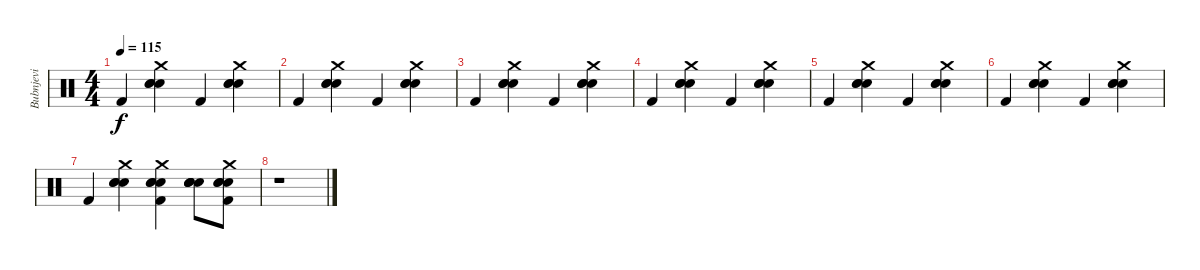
\track ("Bubnjevi" "Bubnjevi") {instrument percussion}
\staff {score}
\articulation defaults
\ts (4 4)
\tempo 115
\clef neutral
\ks c "Kick (hit) 2".4{dy f}
("Electric Snare (hit)" "Electric Snare (hit)" "Crash medium (hit)" "Electric Snare (hit)").4 "Kick (hit) 2".4 ("Electric Snare (hit)" "Electric Snare (hit)" "Crash medium (hit)" "Electric Snare (hit)").4 |
"Kick (hit) 2".4 ("Electric Snare (hit)" "Electric Snare (hit)" "Crash medium (hit)" "Electric Snare (hit)").4 "Kick (hit) 2".4 ("Electric Snare (hit)" "Electric Snare (hit)" "Crash medium (hit)" "Electric Snare (hit)").4 |
"Kick (hit) 2".4 ("Electric Snare (hit)" "Electric Snare (hit)" "Crash medium (hit)" "Electric Snare (hit)").4 "Kick (hit) 2".4 ("Electric Snare (hit)" "Electric Snare (hit)" "Crash medium (hit)" "Electric Snare (hit)").4 |
"Kick (hit) 2".4 ("Electric Snare (hit)" "Electric Snare (hit)" "Crash medium (hit)" "Electric Snare (hit)").4 "Kick (hit) 2".4 ("Electric Snare (hit)" "Electric Snare (hit)" "Crash medium (hit)" "Electric Snare (hit)").4 |
"Kick (hit) 2".4 ("Electric Snare (hit)" "Electric Snare (hit)" "Crash medium (hit)" "Electric Snare (hit)").4 "Kick (hit) 2".4 ("Electric Snare (hit)" "Electric Snare (hit)" "Crash medium (hit)" "Electric Snare (hit)").4 |
"Kick (hit) 2".4 ("Electric Snare (hit)" "Electric Snare (hit)" "Crash medium (hit)" "Electric Snare (hit)").4 "Kick (hit) 2".4 ("Electric Snare (hit)" "Electric Snare (hit)" "Crash medium (hit)" "Electric Snare (hit)").4 |
"Kick (hit) 2".4 ("Electric Snare (hit)" "Electric Snare (hit)" "Crash medium (hit)" "Electric Snare (hit)").4 ("Electric Snare (hit)" "Electric Snare (hit)" "Crash medium (hit)" "Electric Snare (hit)" "Kick (hit) 2").4 ("Electric Snare (hit)" "Electric Snare (hit)" "Electric Snare (hit)" "Electric Snare (hit)").8 ("Electric Snare (hit)" "Electric Snare (hit)" "Crash medium (hit)" "Electric Snare (hit)" "Kick (hit) 2").8 |
r.1
